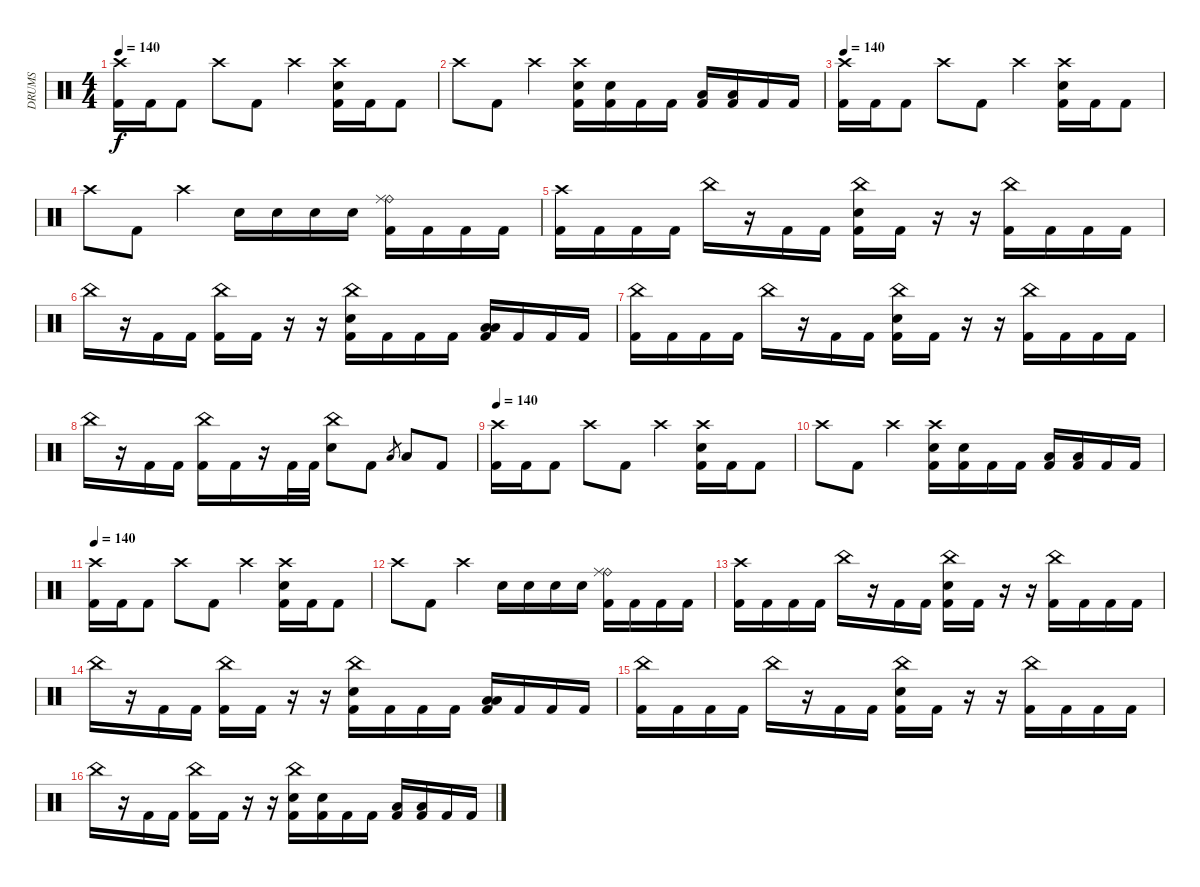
\track ("DRUMS" "DRUMS") {instrument percussion}
\staff {score}
\articulation defaults
\ts (4 4)
\tempo 140
\clef neutral
\ks c
("Crash high (hit)" "Kick (hit) 2").16{dy f} "Kick (hit) 2".16 "Kick (hit) 2".8 "Crash high (hit)".8 "Kick (hit) 2".8 "Crash high (hit)".4 ("Crash high (hit)" "Electric Snare (hit)" "Kick (hit) 2").16 "Kick (hit) 2".16 "Kick (hit) 2".8 |
"Crash high (hit)".8 "Kick (hit) 2".8 "Crash high (hit)".4 ("Crash high (hit)" "Electric Snare (hit)" "Kick (hit) 2").16 ("Electric Snare (hit)" "Kick (hit) 2").16 "Kick (hit) 2".16 "Kick (hit) 2".16 ("Low Tom (hit)" "Kick (hit) 2").16 ("Low Tom (hit)" "Kick (hit) 2").16 "Kick (hit) 2".16 "Kick (hit) 2".16 |
\tempo 140
("Crash high (hit)" "Kick (hit) 2").16 "Kick (hit) 2".16 "Kick (hit) 2".8 "Crash high (hit)".8 "Kick (hit) 2".8 "Crash high (hit)".4 ("Crash high (hit)" "Electric Snare (hit)" "Kick (hit) 2").16 "Kick (hit) 2".16 "Kick (hit) 2".8 |
"Crash high (hit)".8 "Kick (hit) 2".8 "Crash high (hit)".4 "Electric Snare (hit)".16 "Electric Snare (hit)".16 "Electric Snare (hit)".16 "Electric Snare (hit)".16 ("Ride (bell)" "Ride (middle)" "Kick (hit) 2").16 "Kick (hit) 2".16 "Kick (hit) 2".16 "Kick (hit) 2".16 |
("Crash high (hit)" "Kick (hit) 2").16 "Kick (hit) 2".16 "Kick (hit) 2".16 "Kick (hit) 2".16 "China (hit)".16 r.16 "Kick (hit) 2".16 "Kick (hit) 2".16 ("China (hit)" "Electric Snare (hit)" "Kick (hit) 2").16 "Kick (hit) 2".16 r.16 r.16 ("China (hit)" "Kick (hit) 2").16 "Kick (hit) 2".16 "Kick (hit) 2".16 "Kick (hit) 2".16 |
"China (hit)".16 r.16 "Kick (hit) 2".16 "Kick (hit) 2".16 ("China (hit)" "Kick (hit) 2").16 "Kick (hit) 2".16 r.16 r.16 ("China (hit)" "Electric Snare (hit)" "Kick (hit) 2").16 "Kick (hit) 2".16 "Kick (hit) 2".16 "Kick (hit) 2".16 ("Low Tom (hit)" "Low Floor Tom (hit)" "Kick (hit) 2").16 "Kick (hit) 2".16 "Kick (hit) 2".16 "Kick (hit) 2".16 |
("China (hit)" "Kick (hit) 2").16 "Kick (hit) 2".16 "Kick (hit) 2".16 "Kick (hit) 2".16 "China (hit)".16 r.16 "Kick (hit) 2".16 "Kick (hit) 2".16 ("China (hit)" "Electric Snare (hit)" "Kick (hit) 2").16 "Kick (hit) 2".16 r.16 r.16 ("China (hit)" "Kick (hit) 2").16 "Kick (hit) 2".16 "Kick (hit) 2".16 "Kick (hit) 2".16 |
"China (hit)".16 r.16 "Kick (hit) 2".16 "Kick (hit) 2".16 ("China (hit)" "Kick (hit) 2").16 "Kick (hit) 2".16 r.16 "Kick (hit) 2".32 "Kick (hit) 2".32 ("China (hit)" "Electric Snare (hit)").8 "Kick (hit) 2".8 "Low Tom (hit)".8{gr} "Low Tom (hit)".8 "Kick (hit) 2".8 |
\tempo 140
("Crash high (hit)" "Kick (hit) 2").16 "Kick (hit) 2".16 "Kick (hit) 2".8 "Crash high (hit)".8 "Kick (hit) 2".8 "Crash high (hit)".4 ("Crash high (hit)" "Electric Snare (hit)" "Kick (hit) 2").16 "Kick (hit) 2".16 "Kick (hit) 2".8 |
"Crash high (hit)".8 "Kick (hit) 2".8 "Crash high (hit)".4 ("Crash high (hit)" "Electric Snare (hit)" "Kick (hit) 2").16 ("Electric Snare (hit)" "Kick (hit) 2").16 "Kick (hit) 2".16 "Kick (hit) 2".16 ("Low Tom (hit)" "Kick (hit) 2").16 ("Low Tom (hit)" "Kick (hit) 2").16 "Kick (hit) 2".16 "Kick (hit) 2".16 |
\tempo 140
("Crash high (hit)" "Kick (hit) 2").16 "Kick (hit) 2".16 "Kick (hit) 2".8 "Crash high (hit)".8 "Kick (hit) 2".8 "Crash high (hit)".4 ("Crash high (hit)" "Electric Snare (hit)" "Kick (hit) 2").16 "Kick (hit) 2".16 "Kick (hit) 2".8 |
"Crash high (hit)".8 "Kick (hit) 2".8 "Crash high (hit)".4 "Electric Snare (hit)".16 "Electric Snare (hit)".16 "Electric Snare (hit)".16 "Electric Snare (hit)".16 ("Ride (bell)" "Ride (middle)" "Kick (hit) 2").16 "Kick (hit) 2".16 "Kick (hit) 2".16 "Kick (hit) 2".16 |
("Crash high (hit)" "Kick (hit) 2").16 "Kick (hit) 2".16 "Kick (hit) 2".16 "Kick (hit) 2".16 "China (hit)".16 r.16 "Kick (hit) 2".16 "Kick (hit) 2".16 ("China (hit)" "Electric Snare (hit)" "Kick (hit) 2").16 "Kick (hit) 2".16 r.16 r.16 ("China (hit)" "Kick (hit) 2").16 "Kick (hit) 2".16 "Kick (hit) 2".16 "Kick (hit) 2".16 |
"China (hit)".16 r.16 "Kick (hit) 2".16 "Kick (hit) 2".16 ("China (hit)" "Kick (hit) 2").16 "Kick (hit) 2".16 r.16 r.16 ("China (hit)" "Electric Snare (hit)" "Kick (hit) 2").16 "Kick (hit) 2".16 "Kick (hit) 2".16 "Kick (hit) 2".16 ("Low Tom (hit)" "Low Floor Tom (hit)" "Kick (hit) 2").16 "Kick (hit) 2".16 "Kick (hit) 2".16 "Kick (hit) 2".16 |
("China (hit)" "Kick (hit) 2").16 "Kick (hit) 2".16 "Kick (hit) 2".16 "Kick (hit) 2".16 "China (hit)".16 r.16 "Kick (hit) 2".16 "Kick (hit) 2".16 ("China (hit)" "Electric Snare (hit)" "Kick (hit) 2").16 "Kick (hit) 2".16 r.16 r.16 ("China (hit)" "Kick (hit) 2").16 "Kick (hit) 2".16 "Kick (hit) 2".16 "Kick (hit) 2".16 |
"China (hit)".16 r.16 "Kick (hit) 2".16 "Kick (hit) 2".16 ("China (hit)" "Kick (hit) 2").16 "Kick (hit) 2".16 r.16 r.16 ("China (hit)" "Electric Snare (hit)" "Kick (hit) 2").16 ("Electric Snare (hit)" "Kick (hit) 2").16 "Kick (hit) 2".16 "Kick (hit) 2".16 ("Low Tom (hit)" "Kick (hit) 2").16 ("Low Tom (hit)" "Kick (hit) 2").16 "Kick (hit) 2".16 "Kick (hit) 2".16
